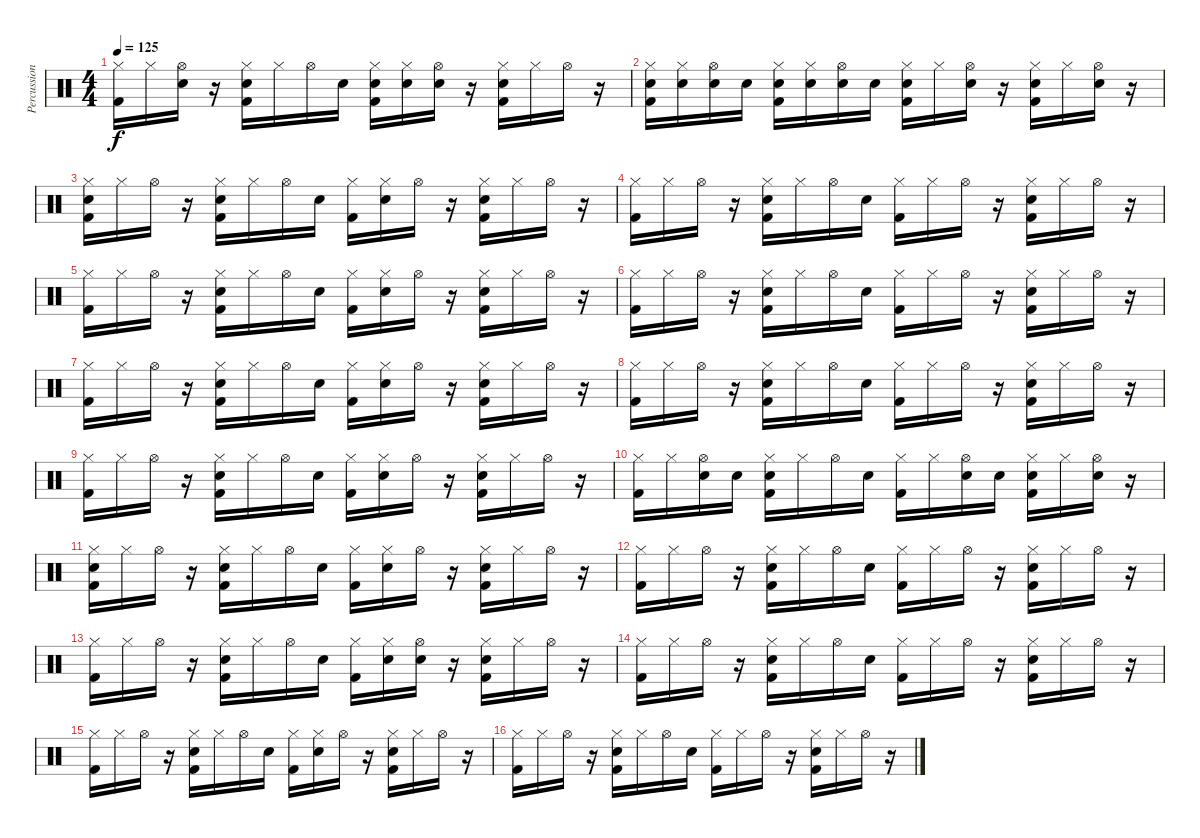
\track ("Percussion" "Percussion") {instrument percussion}
\staff {score}
\articulation defaults
\ts (4 4)
\tempo 125
\clef neutral
\ks c
("Hi-Hat (closed)" "Kick (hit) 2").16{dy f} "Hi-Hat (closed)".16 ("Hi-Hat (open)" "Electric Snare (hit)").16 r.16 ("Hi-Hat (closed)" "Electric Snare (hit)" "Kick (hit) 2").16 "Hi-Hat (closed)".16 "Hi-Hat (open)".16 "Electric Snare (hit)".16 ("Hi-Hat (closed)" "Electric Snare (hit)" "Kick (hit) 2").16 ("Hi-Hat (closed)" "Electric Snare (hit)").16 ("Hi-Hat (open)" "Electric Snare (hit)").16 r.16 ("Hi-Hat (closed)" "Electric Snare (hit)" "Kick (hit) 2").16 "Hi-Hat (closed)".16 "Hi-Hat (open)".16 r.16 |
("Hi-Hat (closed)" "Electric Snare (hit)" "Kick (hit) 2").16 ("Hi-Hat (closed)" "Electric Snare (hit)").16 ("Hi-Hat (open)" "Electric Snare (hit)").16 "Electric Snare (hit)".16 ("Hi-Hat (closed)" "Electric Snare (hit)" "Kick (hit) 2").16 ("Hi-Hat (closed)" "Electric Snare (hit)").16 ("Hi-Hat (open)" "Electric Snare (hit)").16 "Electric Snare (hit)".16 ("Hi-Hat (closed)" "Electric Snare (hit)" "Kick (hit) 2").16 "Hi-Hat (closed)".16 ("Hi-Hat (open)" "Electric Snare (hit)").16 r.16 ("Hi-Hat (closed)" "Electric Snare (hit)" "Kick (hit) 2").16 "Hi-Hat (closed)".16 ("Hi-Hat (open)" "Electric Snare (hit)").16 r.16 |
("Hi-Hat (closed)" "Electric Snare (hit)" "Kick (hit) 2").16 "Hi-Hat (closed)".16 "Hi-Hat (open)".16 r.16 ("Hi-Hat (closed)" "Electric Snare (hit)" "Kick (hit) 2").16 "Hi-Hat (closed)".16 "Hi-Hat (open)".16 "Electric Snare (hit)".16 ("Hi-Hat (closed)" "Kick (hit) 2").16 ("Hi-Hat (closed)" "Electric Snare (hit)").16 "Hi-Hat (open)".16 r.16 ("Hi-Hat (closed)" "Electric Snare (hit)" "Kick (hit) 2").16 "Hi-Hat (closed)".16 "Hi-Hat (open)".16 r.16 |
("Hi-Hat (closed)" "Kick (hit) 2").16 "Hi-Hat (closed)".16 "Hi-Hat (open)".16 r.16 ("Hi-Hat (closed)" "Electric Snare (hit)" "Kick (hit) 2").16 "Hi-Hat (closed)".16 "Hi-Hat (open)".16 "Electric Snare (hit)".16 ("Hi-Hat (closed)" "Kick (hit) 2").16 "Hi-Hat (closed)".16 "Hi-Hat (open)".16 r.16 ("Hi-Hat (closed)" "Electric Snare (hit)" "Kick (hit) 2").16 "Hi-Hat (closed)".16 "Hi-Hat (open)".16 r.16 |
("Hi-Hat (closed)" "Kick (hit) 2").16 "Hi-Hat (closed)".16 "Hi-Hat (open)".16 r.16 ("Hi-Hat (closed)" "Electric Snare (hit)" "Kick (hit) 2").16 "Hi-Hat (closed)".16 "Hi-Hat (open)".16 "Electric Snare (hit)".16 ("Hi-Hat (closed)" "Kick (hit) 2").16 ("Hi-Hat (closed)" "Electric Snare (hit)").16 "Hi-Hat (open)".16 r.16 ("Hi-Hat (closed)" "Electric Snare (hit)" "Kick (hit) 2").16 "Hi-Hat (closed)".16 "Hi-Hat (open)".16 r.16 |
("Hi-Hat (closed)" "Kick (hit) 2").16 "Hi-Hat (closed)".16 "Hi-Hat (open)".16 r.16 ("Hi-Hat (closed)" "Electric Snare (hit)" "Kick (hit) 2").16 "Hi-Hat (closed)".16 "Hi-Hat (open)".16 "Electric Snare (hit)".16 ("Hi-Hat (closed)" "Kick (hit) 2").16 "Hi-Hat (closed)".16 "Hi-Hat (open)".16 r.16 ("Hi-Hat (closed)" "Electric Snare (hit)" "Kick (hit) 2").16 "Hi-Hat (closed)".16 "Hi-Hat (open)".16 r.16 |
("Hi-Hat (closed)" "Kick (hit) 2").16 "Hi-Hat (closed)".16 "Hi-Hat (open)".16 r.16 ("Hi-Hat (closed)" "Electric Snare (hit)" "Kick (hit) 2").16 "Hi-Hat (closed)".16 "Hi-Hat (open)".16 "Electric Snare (hit)".16 ("Hi-Hat (closed)" "Kick (hit) 2").16 ("Hi-Hat (closed)" "Electric Snare (hit)").16 "Hi-Hat (open)".16 r.16 ("Hi-Hat (closed)" "Electric Snare (hit)" "Kick (hit) 2").16 "Hi-Hat (closed)".16 "Hi-Hat (open)".16 r.16 |
("Hi-Hat (closed)" "Kick (hit) 2").16 "Hi-Hat (closed)".16 "Hi-Hat (open)".16 r.16 ("Hi-Hat (closed)" "Electric Snare (hit)" "Kick (hit) 2").16 "Hi-Hat (closed)".16 "Hi-Hat (open)".16 "Electric Snare (hit)".16 ("Hi-Hat (closed)" "Kick (hit) 2").16 "Hi-Hat (closed)".16 "Hi-Hat (open)".16 r.16 ("Hi-Hat (closed)" "Electric Snare (hit)" "Kick (hit) 2").16 "Hi-Hat (closed)".16 "Hi-Hat (open)".16 r.16 |
("Hi-Hat (closed)" "Kick (hit) 2").16 "Hi-Hat (closed)".16 "Hi-Hat (open)".16 r.16 ("Hi-Hat (closed)" "Electric Snare (hit)" "Kick (hit) 2").16 "Hi-Hat (closed)".16 "Hi-Hat (open)".16 "Electric Snare (hit)".16 ("Hi-Hat (closed)" "Kick (hit) 2").16 ("Hi-Hat (closed)" "Electric Snare (hit)").16 "Hi-Hat (open)".16 r.16 ("Hi-Hat (closed)" "Electric Snare (hit)" "Kick (hit) 2").16 "Hi-Hat (closed)".16 "Hi-Hat (open)".16 r.16 |
("Hi-Hat (closed)" "Kick (hit) 2").16 "Hi-Hat (closed)".16 ("Hi-Hat (open)" "Electric Snare (hit)").16 "Electric Snare (hit)".16 ("Hi-Hat (closed)" "Electric Snare (hit)" "Kick (hit) 2").16 "Hi-Hat (closed)".16 "Hi-Hat (open)".16 "Electric Snare (hit)".16 ("Hi-Hat (closed)" "Kick (hit) 2").16 "Hi-Hat (closed)".16 ("Hi-Hat (open)" "Electric Snare (hit)").16 "Electric Snare (hit)".16 ("Hi-Hat (closed)" "Electric Snare (hit)" "Kick (hit) 2").16 "Hi-Hat (closed)".16 ("Hi-Hat (open)" "Electric Snare (hit)").16 r.16 |
("Hi-Hat (closed)" "Electric Snare (hit)" "Kick (hit) 2").16 "Hi-Hat (closed)".16 "Hi-Hat (open)".16 r.16 ("Hi-Hat (closed)" "Electric Snare (hit)" "Kick (hit) 2").16 "Hi-Hat (closed)".16 "Hi-Hat (open)".16 "Electric Snare (hit)".16 ("Hi-Hat (closed)" "Kick (hit) 2").16 ("Hi-Hat (closed)" "Electric Snare (hit)").16 "Hi-Hat (open)".16 r.16 ("Hi-Hat (closed)" "Electric Snare (hit)" "Kick (hit) 2").16 "Hi-Hat (closed)".16 "Hi-Hat (open)".16 r.16 |
("Hi-Hat (closed)" "Kick (hit) 2").16 "Hi-Hat (closed)".16 "Hi-Hat (open)".16 r.16 ("Hi-Hat (closed)" "Electric Snare (hit)" "Kick (hit) 2").16 "Hi-Hat (closed)".16 "Hi-Hat (open)".16 "Electric Snare (hit)".16 ("Hi-Hat (closed)" "Kick (hit) 2").16 "Hi-Hat (closed)".16 "Hi-Hat (open)".16 r.16 ("Hi-Hat (closed)" "Electric Snare (hit)" "Kick (hit) 2").16 "Hi-Hat (closed)".16 "Hi-Hat (open)".16 r.16 |
("Hi-Hat (closed)" "Kick (hit) 2").16 "Hi-Hat (closed)".16 "Hi-Hat (open)".16 r.16 ("Hi-Hat (closed)" "Electric Snare (hit)" "Kick (hit) 2").16 "Hi-Hat (closed)".16 "Hi-Hat (open)".16 "Electric Snare (hit)".16 ("Hi-Hat (closed)" "Kick (hit) 2").16 ("Hi-Hat (closed)" "Electric Snare (hit)").16 ("Hi-Hat (open)" "Electric Snare (hit)").16 r.16 ("Hi-Hat (closed)" "Electric Snare (hit)" "Kick (hit) 2").16 "Hi-Hat (closed)".16 "Hi-Hat (open)".16 r.16 |
("Hi-Hat (closed)" "Kick (hit) 2").16 "Hi-Hat (closed)".16 "Hi-Hat (open)".16 r.16 ("Hi-Hat (closed)" "Electric Snare (hit)" "Kick (hit) 2").16 "Hi-Hat (closed)".16 "Hi-Hat (open)".16 "Electric Snare (hit)".16 ("Hi-Hat (closed)" "Kick (hit) 2").16 "Hi-Hat (closed)".16 "Hi-Hat (open)".16 r.16 ("Hi-Hat (closed)" "Electric Snare (hit)" "Kick (hit) 2").16 "Hi-Hat (closed)".16 "Hi-Hat (open)".16 r.16 |
("Hi-Hat (closed)" "Kick (hit) 2").16 "Hi-Hat (closed)".16 "Hi-Hat (open)".16 r.16 ("Hi-Hat (closed)" "Electric Snare (hit)" "Kick (hit) 2").16 "Hi-Hat (closed)".16 "Hi-Hat (open)".16 "Electric Snare (hit)".16 ("Hi-Hat (closed)" "Kick (hit) 2").16 ("Hi-Hat (closed)" "Electric Snare (hit)").16 "Hi-Hat (open)".16 r.16 ("Hi-Hat (closed)" "Electric Snare (hit)" "Kick (hit) 2").16 "Hi-Hat (closed)".16 "Hi-Hat (open)".16 r.16 |
("Hi-Hat (closed)" "Kick (hit) 2").16 "Hi-Hat (closed)".16 "Hi-Hat (open)".16 r.16 ("Hi-Hat (closed)" "Electric Snare (hit)" "Kick (hit) 2").16 "Hi-Hat (closed)".16 "Hi-Hat (open)".16 "Electric Snare (hit)".16 ("Hi-Hat (closed)" "Kick (hit) 2").16 "Hi-Hat (closed)".16 "Hi-Hat (open)".16 r.16 ("Hi-Hat (closed)" "Electric Snare (hit)" "Kick (hit) 2").16 "Hi-Hat (closed)".16 "Hi-Hat (open)".16 r.16
